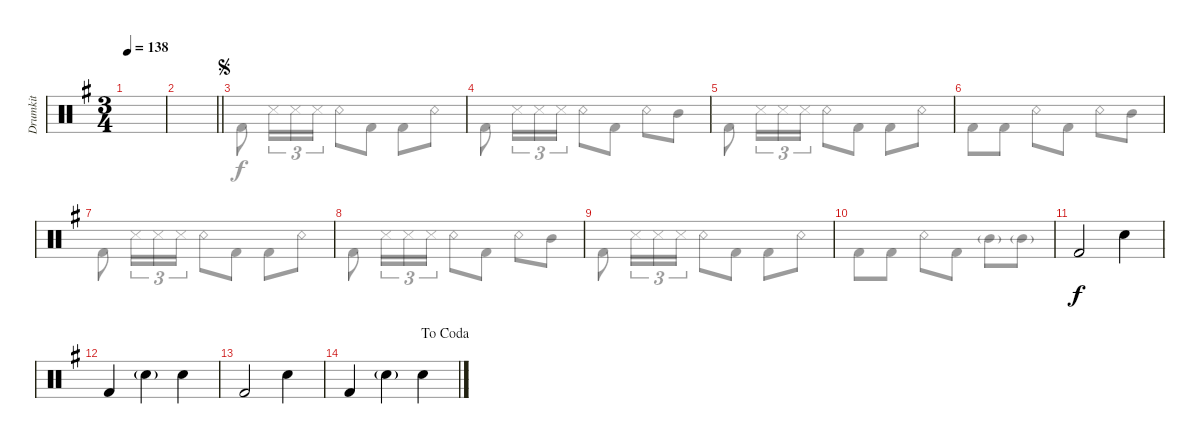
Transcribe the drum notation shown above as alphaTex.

\track ("Drumkit" "Drumkit") {instrument percussion}
\staff {score}
\articulation defaults
\voice
\ts (3 4)
\tempo 138
\clef neutral
\ks eminor
|
\barLineRight lightlight
|
\jump segno
|
|
|
|
|
|
|
|
"Kick (hit) 2".2 "Snare (hit) 2".4 |
"Kick (hit) 2".4 "Snare (hit) 2"{g}.4 "Snare (hit) 2".4 |
"Kick (hit) 2".2 "Snare (hit) 2".4 |
\jump dacoda "Kick (hit) 2".4 "Snare (hit) 2"{g}.4 "Snare (hit) 2".4
|
|
\voice
\clef neutral
\ottava regular
\simile none
\ks eminor
|
\barLineRight lightlight
|
"Kick (hit) 2".8 "Snare (side stick) 3".16{tu (3 2)} "Snare (side stick) 3".16{tu (3 2)} "Snare (side stick) 3".16{tu (3 2)} "Snare (rim shot)".8 "Kick (hit) 2".8 "Kick (hit) 2".8 "Snare (rim shot)".8 |
"Kick (hit) 2".8 "Snare (side stick) 3".16{tu (3 2)} "Snare (side stick) 3".16{tu (3 2)} "Snare (side stick) 3".16{tu (3 2)} "Snare (rim shot)".8 "Kick (hit) 2".8 "Snare (rim shot)".8 "Mid Tom (hit)".8 |
"Kick (hit) 2".8 "Snare (side stick) 3".16{tu (3 2)} "Snare (side stick) 3".16{tu (3 2)} "Snare (side stick) 3".16{tu (3 2)} "Snare (rim shot)".8 "Kick (hit) 2".8 "Kick (hit) 2".8 "Snare (rim shot)".8 |
"Kick (hit) 2".8 "Kick (hit) 2".8 "Snare (rim shot)".8 "Kick (hit) 2".8 "Snare (rim shot)".8 "Mid Tom (hit)".8 |
"Kick (hit) 2".8 "Snare (side stick) 3".16{tu (3 2)} "Snare (side stick) 3".16{tu (3 2)} "Snare (side stick) 3".16{tu (3 2)} "Snare (rim shot)".8 "Kick (hit) 2".8 "Kick (hit) 2".8 "Snare (rim shot)".8 |
"Kick (hit) 2".8 "Snare (side stick) 3".16{tu (3 2)} "Snare (side stick) 3".16{tu (3 2)} "Snare (side stick) 3".16{tu (3 2)} "Snare (rim shot)".8 "Kick (hit) 2".8 "Snare (rim shot)".8 "Mid Tom (hit)".8 |
"Kick (hit) 2".8 "Snare (side stick) 3".16{tu (3 2)} "Snare (side stick) 3".16{tu (3 2)} "Snare (side stick) 3".16{tu (3 2)} "Snare (rim shot)".8 "Kick (hit) 2".8 "Kick (hit) 2".8 "Snare (rim shot)".8 |
"Kick (hit) 2".8 "Kick (hit) 2".8 "Snare (rim shot)".8 "Kick (hit) 2".8 "Mid Tom (hit)"{g}.8 "Mid Tom (hit)"{g}.8 |
|
|
|
|
|
